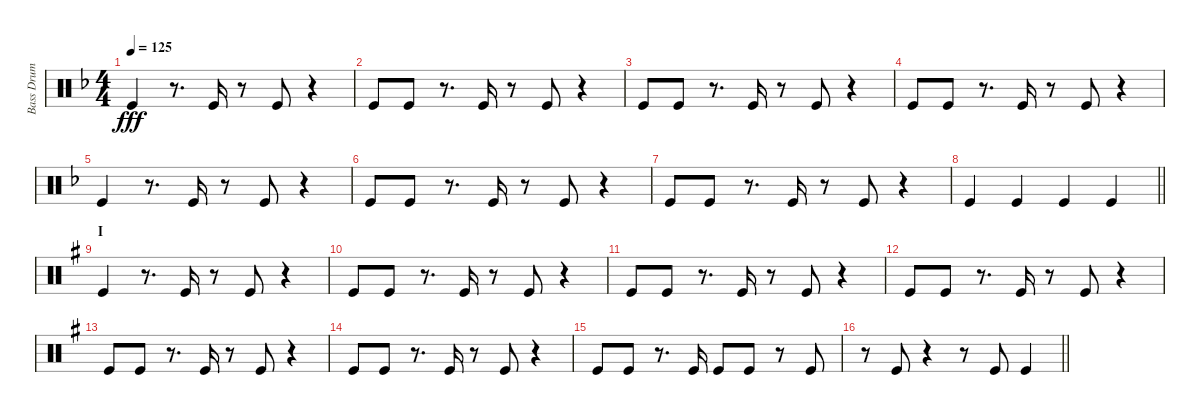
\track ("Bass Drum" "Bass Drum") {instrument percussion}
\staff {score}
\articulation defaults
\ts (4 4)
\tempo 125
\clef neutral
\ks f "Kick (hit)".4{dy fff}
r.8{d} "Kick (hit)".16 r.8 "Kick (hit)".8 r.4 |
"Kick (hit)".8 "Kick (hit)".8 r.8{d} "Kick (hit)".16 r.8 "Kick (hit)".8 r.4 |
"Kick (hit)".8 "Kick (hit)".8 r.8{d} "Kick (hit)".16 r.8 "Kick (hit)".8 r.4 |
"Kick (hit)".8 "Kick (hit)".8 r.8{d} "Kick (hit)".16 r.8 "Kick (hit)".8 r.4 |
"Kick (hit)".4 r.8{d} "Kick (hit)".16 r.8 "Kick (hit)".8 r.4 |
"Kick (hit)".8 "Kick (hit)".8 r.8{d} "Kick (hit)".16 r.8 "Kick (hit)".8 r.4 |
"Kick (hit)".8 "Kick (hit)".8 r.8{d} "Kick (hit)".16 r.8 "Kick (hit)".8 r.4 |
\barLineRight lightlight "Kick (hit)".4 "Kick (hit)".4 "Kick (hit)".4 "Kick (hit)".4
|
\section ("" "I")
\ks g "Kick (hit)".4
r.8{d} "Kick (hit)".16 r.8 "Kick (hit)".8 r.4 |
"Kick (hit)".8 "Kick (hit)".8 r.8{d} "Kick (hit)".16 r.8 "Kick (hit)".8 r.4 |
"Kick (hit)".8 "Kick (hit)".8 r.8{d} "Kick (hit)".16 r.8 "Kick (hit)".8 r.4 |
"Kick (hit)".8 "Kick (hit)".8 r.8{d} "Kick (hit)".16 r.8 "Kick (hit)".8 r.4 |
"Kick (hit)".8 "Kick (hit)".8 r.8{d} "Kick (hit)".16 r.8 "Kick (hit)".8 r.4 |
"Kick (hit)".8 "Kick (hit)".8 r.8{d} "Kick (hit)".16 r.8 "Kick (hit)".8 r.4 |
"Kick (hit)".8 "Kick (hit)".8 r.8{d} "Kick (hit)".16 "Kick (hit)".8 "Kick (hit)".8 r.8 "Kick (hit)".8 |
\barLineRight lightlight
r.8 "Kick (hit)".8 r.4 r.8 "Kick (hit)".8 "Kick (hit)".4
